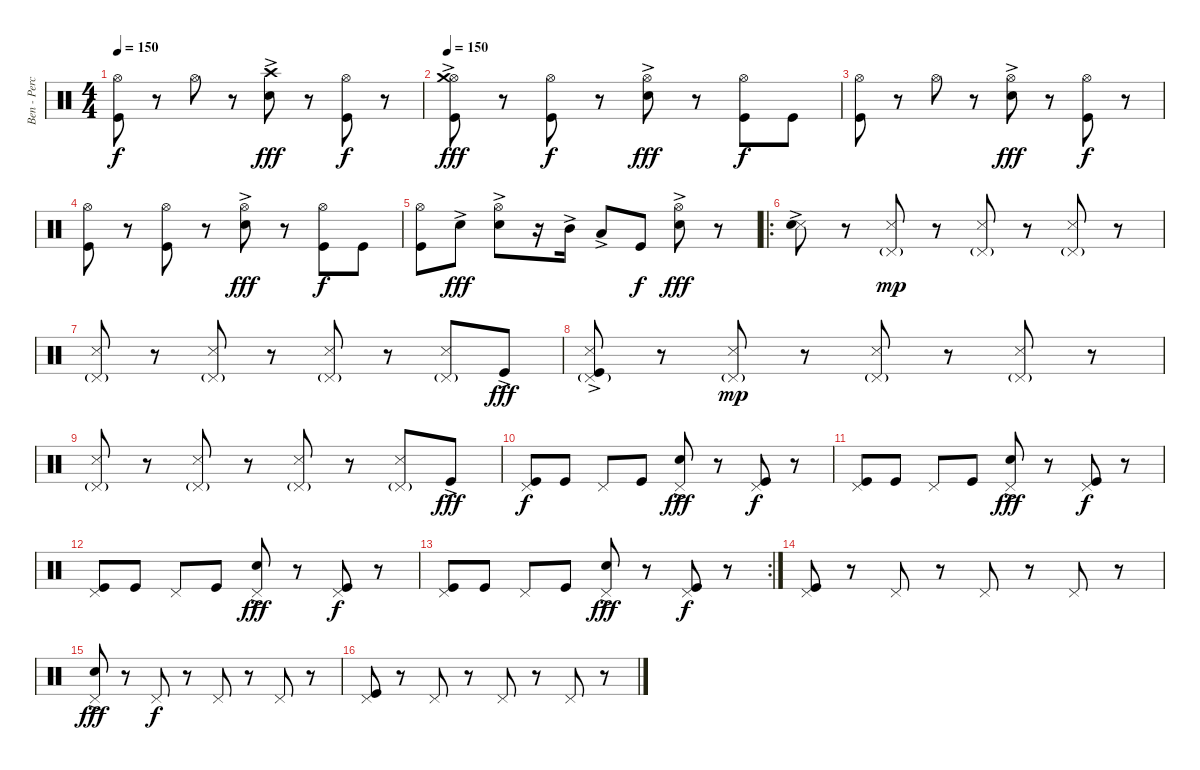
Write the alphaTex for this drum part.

\track ("Ben - Perception Twin - Drums" "Ben - Perc") {instrument percussion}
\staff {score}
\articulation defaults
\ts (4 4)
\tempo 150
\clef neutral
\ks c
("Hi-Hat (open)" "Kick (hit)").8{dy f} r.8 "Hi-Hat (open)".8 r.8 ("Crash high (hit)"{ac} "Electric Snare (hit)"{ac}).8{dy fff} r.8 ("Hi-Hat (open)" "Kick (hit)").8{dy f} r.8 |
\tempo 150
("Hi-Hat (open)" "Crash medium (hit)"{ac} "Kick (hit)").8{dy fff} r.8 ("Hi-Hat (open)" "Kick (hit)").8{dy f} r.8 ("Hi-Hat (open)" "Electric Snare (hit)"{ac}).8{dy fff} r.8 ("Hi-Hat (open)" "Kick (hit)").8{dy f} "Kick (hit)".8 |
("Hi-Hat (open)" "Kick (hit)").8 r.8 "Hi-Hat (open)".8 r.8 ("Hi-Hat (open)" "Electric Snare (hit)"{ac}).8{dy fff} r.8 ("Hi-Hat (open)" "Kick (hit)").8{dy f} r.8 |
("Hi-Hat (open)" "Kick (hit)").8 r.8 ("Hi-Hat (open)" "Kick (hit)").8 r.8 ("Hi-Hat (open)" "Electric Snare (hit)"{ac}).8{dy fff} r.8 ("Hi-Hat (open)" "Kick (hit)").8{dy f} "Kick (hit)".8 |
("Hi-Hat (open)" "Kick (hit)").8 "Electric Snare (hit)"{ac}.8{dy fff} ("Hi-Hat (open)" "Electric Snare (hit)"{ac}).8 r.16 "Mid Tom (hit)"{ac}.16 "Low Tom (hit)"{ac}.8 "Kick (hit)".8{dy f} ("Hi-Hat (open)" "Electric Snare (hit)"{ac}).8{dy fff} r.8 |
\ro
("Metronome (hit)" "Electric Snare (hit)"{ac}).8 r.8 ("Pedal Hi-Hat (hit)"{g} "Metronome (hit)").8{dy mp} r.8 ("Pedal Hi-Hat (hit)"{g} "Metronome (hit)").8 r.8 ("Pedal Hi-Hat (hit)"{g} "Metronome (hit)").8 r.8 |
("Pedal Hi-Hat (hit)"{g} "Metronome (hit)").8 r.8 ("Pedal Hi-Hat (hit)"{g} "Metronome (hit)").8 r.8 ("Pedal Hi-Hat (hit)"{g} "Metronome (hit)").8 r.8 ("Pedal Hi-Hat (hit)"{g} "Metronome (hit)").8 "Kick (hit)"{ac}.8{dy fff} |
("Pedal Hi-Hat (hit)"{g} "Metronome (hit)" "Kick (hit)"{ac}).8 r.8 ("Pedal Hi-Hat (hit)"{g} "Metronome (hit)").8{dy mp} r.8 ("Pedal Hi-Hat (hit)"{g} "Metronome (hit)").8 r.8 ("Pedal Hi-Hat (hit)"{g} "Metronome (hit)").8 r.8 |
("Pedal Hi-Hat (hit)"{g} "Metronome (hit)").8 r.8 ("Pedal Hi-Hat (hit)"{g} "Metronome (hit)").8 r.8 ("Pedal Hi-Hat (hit)"{g} "Metronome (hit)").8 r.8 ("Pedal Hi-Hat (hit)"{g} "Metronome (hit)").8 "Kick (hit)"{ac}.8{dy fff} |
("Pedal Hi-Hat (hit)" "Kick (hit)").8{dy f} "Kick (hit)".8 "Pedal Hi-Hat (hit)".8 "Kick (hit)".8 ("Pedal Hi-Hat (hit)" "Electric Snare (hit)"{ac}).8{dy fff} r.8 ("Pedal Hi-Hat (hit)" "Kick (hit)").8{dy f} r.8 |
("Pedal Hi-Hat (hit)" "Kick (hit)").8 "Kick (hit)".8 "Pedal Hi-Hat (hit)".8 "Kick (hit)".8 ("Pedal Hi-Hat (hit)" "Electric Snare (hit)"{ac}).8{dy fff} r.8 ("Pedal Hi-Hat (hit)" "Kick (hit)").8{dy f} r.8 |
("Pedal Hi-Hat (hit)" "Kick (hit)").8 "Kick (hit)".8 "Pedal Hi-Hat (hit)".8 "Kick (hit)".8 ("Pedal Hi-Hat (hit)" "Electric Snare (hit)"{ac}).8{dy fff} r.8 ("Pedal Hi-Hat (hit)" "Kick (hit)").8{dy f} r.8 |
\rc 2
("Pedal Hi-Hat (hit)" "Kick (hit)").8 "Kick (hit)".8 "Pedal Hi-Hat (hit)".8 "Kick (hit)".8 ("Pedal Hi-Hat (hit)" "Electric Snare (hit)"{ac}).8{dy fff} r.8 ("Pedal Hi-Hat (hit)" "Kick (hit)").8{dy f} r.8 |
("Pedal Hi-Hat (hit)" "Kick (hit)").8 r.8 "Pedal Hi-Hat (hit)".8 r.8 "Pedal Hi-Hat (hit)".8 r.8 "Pedal Hi-Hat (hit)".8 r.8 |
("Pedal Hi-Hat (hit)" "Electric Snare (hit)"{ac}).8{dy fff} r.8 "Pedal Hi-Hat (hit)".8{dy f} r.8 "Pedal Hi-Hat (hit)".8 r.8 "Pedal Hi-Hat (hit)".8 r.8 |
("Pedal Hi-Hat (hit)" "Kick (hit)").8 r.8 "Pedal Hi-Hat (hit)".8 r.8 "Pedal Hi-Hat (hit)".8 r.8 "Pedal Hi-Hat (hit)".8 r.8
